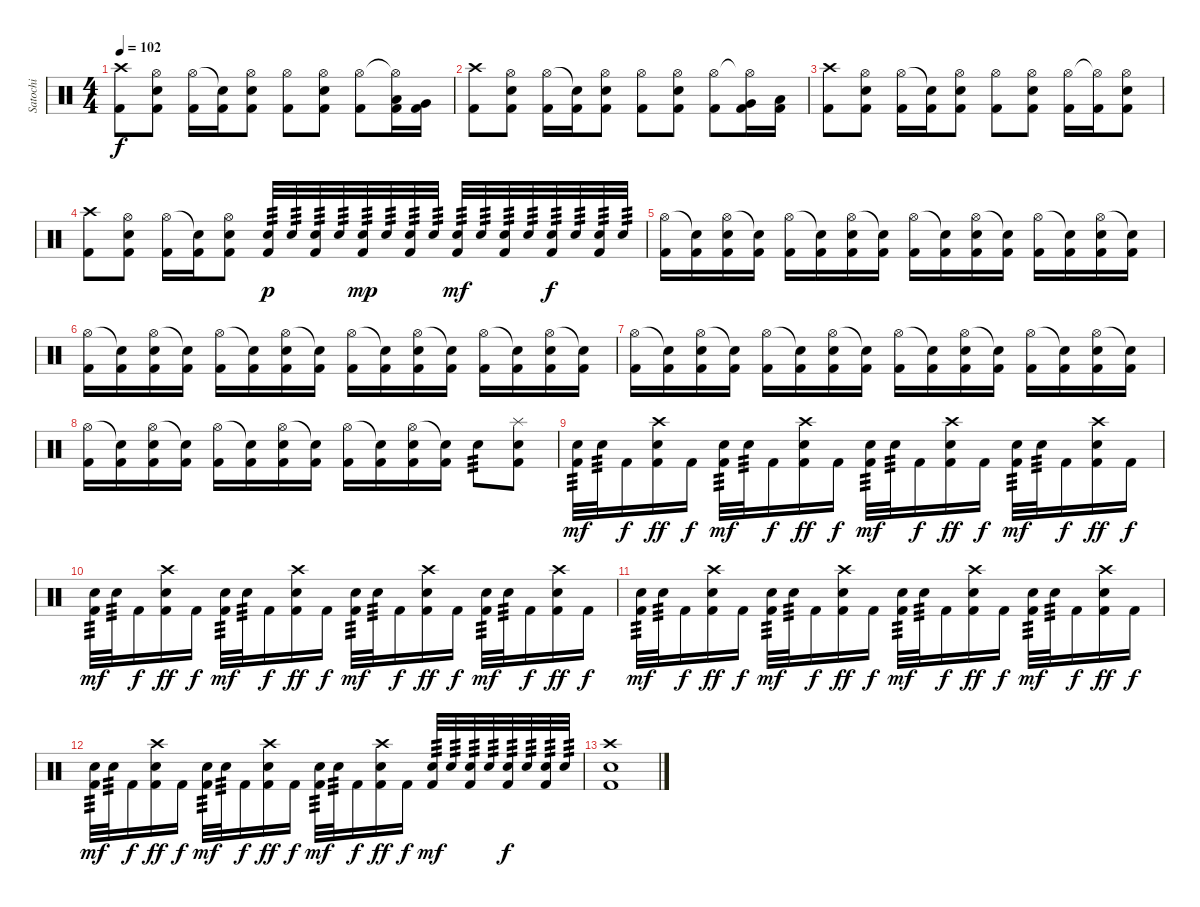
\track ("Satochi" "Satochi") {instrument percussion}
\staff {score}
\articulation defaults
\ts (4 4)
\tempo 102
\clef neutral
\ks c
("Crash high (hit)" "Kick (hit) 2").8{dy f} ("Hi-Hat (open)" "Electric Snare (hit)" "Kick (hit) 2").8 ("Hi-Hat (open)" "Kick (hit) 2").16 ("Snare (hit)"{t} "Kick (hit) 2").16 ("Hi-Hat (open)" "Electric Snare (hit)" "Kick (hit) 2").8 ("Hi-Hat (open)" "Kick (hit) 2").8 ("Hi-Hat (open)" "Electric Snare (hit)" "Kick (hit) 2").8 ("Hi-Hat (open)" "Kick (hit) 2").8 ("Hi-Hat (open)"{t} "Low Tom (hit)" "Kick (hit) 2").16 ("Very Low Tom (hit)" "Kick (hit) 2").16 |
("Crash high (hit)" "Kick (hit) 2").8 ("Hi-Hat (open)" "Electric Snare (hit)" "Kick (hit) 2").8 ("Hi-Hat (open)" "Kick (hit) 2").16 ("Snare (hit)"{t} "Kick (hit) 2").16 ("Hi-Hat (open)" "Electric Snare (hit)" "Kick (hit) 2").8 ("Hi-Hat (open)" "Kick (hit) 2").8 ("Hi-Hat (open)" "Electric Snare (hit)" "Kick (hit) 2").8 ("Hi-Hat (open)" "Kick (hit) 2").8 ("Hi-Hat (open)"{t} "Very Low Tom (hit)" "Kick (hit) 2").16 ("Low Tom (hit)" "Kick (hit) 2").16 |
("Crash high (hit)" "Kick (hit) 2").8 ("Hi-Hat (open)" "Electric Snare (hit)" "Kick (hit) 2").8 ("Hi-Hat (open)" "Kick (hit) 2").16 ("Snare (hit)"{t} "Kick (hit) 2").16 ("Hi-Hat (open)" "Electric Snare (hit)" "Kick (hit) 2").8 ("Hi-Hat (open)" "Kick (hit) 2").8 ("Hi-Hat (open)" "Electric Snare (hit)" "Kick (hit) 2").8 ("Hi-Hat (open)" "Kick (hit) 2").16 ("Hi-Hat (open)"{t} "Kick (hit) 2").16 ("Hi-Hat (open)" "Electric Snare (hit)" "Kick (hit) 2").8 |
("Crash high (hit)" "Kick (hit) 2").8 ("Hi-Hat (open)" "Electric Snare (hit)" "Kick (hit) 2").8 ("Hi-Hat (open)" "Kick (hit) 2").16 ("Snare (hit)"{t} "Kick (hit) 2").16 ("Hi-Hat (open)" "Electric Snare (hit)" "Kick (hit) 2").8 ("Electric Snare (hit)" "Kick (hit) 2").32{tp 3 dy p} "Electric Snare (hit)".32{tp 3} ("Electric Snare (hit)" "Kick (hit) 2").32{tp 3} "Electric Snare (hit)".32{tp 3} ("Electric Snare (hit)" "Kick (hit) 2").32{tp 3 dy mp} "Electric Snare (hit)".32{tp 3} ("Electric Snare (hit)" "Kick (hit) 2").32{tp 3} "Electric Snare (hit)".32{tp 3} ("Electric Snare (hit)" "Kick (hit) 2").32{tp 3 dy mf} "Electric Snare (hit)".32{tp 3} ("Electric Snare (hit)" "Kick (hit) 2").32{tp 3} "Electric Snare (hit)".32{tp 3} ("Electric Snare (hit)" "Kick (hit) 2").32{tp 3 dy f} "Electric Snare (hit)".32{tp 3} ("Electric Snare (hit)" "Kick (hit) 2").32{tp 3} "Electric Snare (hit)".32{tp 3} |
("Hi-Hat (open)" "Kick (hit) 2").16 ("Snare (hit)"{t} "Kick (hit) 2").16 ("Hi-Hat (open)" "Electric Snare (hit)" "Kick (hit) 2").16 ("Snare (hit)"{t} "Kick (hit) 2").16 ("Hi-Hat (open)" "Kick (hit) 2").16 ("Snare (hit)"{t} "Kick (hit) 2").16 ("Hi-Hat (open)" "Electric Snare (hit)" "Kick (hit) 2").16 ("Snare (hit)"{t} "Kick (hit) 2").16 ("Hi-Hat (open)" "Kick (hit) 2").16 ("Snare (hit)"{t} "Kick (hit) 2").16 ("Hi-Hat (open)" "Electric Snare (hit)" "Kick (hit) 2").16 ("Snare (hit)"{t} "Kick (hit) 2").16 ("Hi-Hat (open)" "Kick (hit) 2").16 ("Snare (hit)"{t} "Kick (hit) 2").16 ("Hi-Hat (open)" "Electric Snare (hit)" "Kick (hit) 2").16 ("Snare (hit)"{t} "Kick (hit) 2").16 |
("Hi-Hat (open)" "Kick (hit) 2").16 ("Snare (hit)"{t} "Kick (hit) 2").16 ("Hi-Hat (open)" "Electric Snare (hit)" "Kick (hit) 2").16 ("Snare (hit)"{t} "Kick (hit) 2").16 ("Hi-Hat (open)" "Kick (hit) 2").16 ("Snare (hit)"{t} "Kick (hit) 2").16 ("Hi-Hat (open)" "Electric Snare (hit)" "Kick (hit) 2").16 ("Snare (hit)"{t} "Kick (hit) 2").16 ("Hi-Hat (open)" "Kick (hit) 2").16 ("Snare (hit)"{t} "Kick (hit) 2").16 ("Hi-Hat (open)" "Electric Snare (hit)" "Kick (hit) 2").16 ("Snare (hit)"{t} "Kick (hit) 2").16 ("Hi-Hat (open)" "Kick (hit) 2").16 ("Snare (hit)"{t} "Kick (hit) 2").16 ("Hi-Hat (open)" "Electric Snare (hit)" "Kick (hit) 2").16 ("Snare (hit)"{t} "Kick (hit) 2").16 |
("Hi-Hat (open)" "Kick (hit) 2").16 ("Snare (hit)"{t} "Kick (hit) 2").16 ("Hi-Hat (open)" "Electric Snare (hit)" "Kick (hit) 2").16 ("Snare (hit)"{t} "Kick (hit) 2").16 ("Hi-Hat (open)" "Kick (hit) 2").16 ("Snare (hit)"{t} "Kick (hit) 2").16 ("Hi-Hat (open)" "Electric Snare (hit)" "Kick (hit) 2").16 ("Snare (hit)"{t} "Kick (hit) 2").16 ("Hi-Hat (open)" "Kick (hit) 2").16 ("Snare (hit)"{t} "Kick (hit) 2").16 ("Hi-Hat (open)" "Electric Snare (hit)" "Kick (hit) 2").16 ("Snare (hit)"{t} "Kick (hit) 2").16 ("Hi-Hat (open)" "Kick (hit) 2").16 ("Snare (hit)"{t} "Kick (hit) 2").16 ("Hi-Hat (open)" "Electric Snare (hit)" "Kick (hit) 2").16 ("Snare (hit)"{t} "Kick (hit) 2").16 |
("Hi-Hat (open)" "Kick (hit) 2").16 ("Snare (hit)"{t} "Kick (hit) 2").16 ("Hi-Hat (open)" "Electric Snare (hit)" "Kick (hit) 2").16 ("Snare (hit)"{t} "Kick (hit) 2").16 ("Hi-Hat (open)" "Kick (hit) 2").16 ("Snare (hit)"{t} "Kick (hit) 2").16 ("Hi-Hat (open)" "Electric Snare (hit)" "Kick (hit) 2").16 ("Snare (hit)"{t} "Kick (hit) 2").16 ("Hi-Hat (open)" "Kick (hit) 2").16 ("Snare (hit)"{t} "Kick (hit) 2").16 ("Hi-Hat (open)" "Electric Snare (hit)" "Kick (hit) 2").16 ("Snare (hit)"{t} "Kick (hit) 2").16 "Electric Snare (hit)".8{tp 3} ("Splash (hit)" "Electric Snare (hit)" "Kick (hit) 2").8 |
("Electric Snare (hit)" "Kick (hit) 2").32{tp 3 dy mf} "Electric Snare (hit)".32{tp 3} "Kick (hit) 2".16{dy f} ("Crash high (hit)" "Electric Snare (hit)" "Kick (hit) 2").16{dy ff} "Kick (hit) 2".16{dy f} ("Electric Snare (hit)" "Kick (hit) 2").32{tp 3 dy mf} "Electric Snare (hit)".32{tp 3} "Kick (hit) 2".16{dy f} ("Crash high (hit)" "Electric Snare (hit)" "Kick (hit) 2").16{dy ff} "Kick (hit) 2".16{dy f} ("Electric Snare (hit)" "Kick (hit) 2").32{tp 3 dy mf} "Electric Snare (hit)".32{tp 3} "Kick (hit) 2".16{dy f} ("Crash high (hit)" "Electric Snare (hit)" "Kick (hit) 2").16{dy ff} "Kick (hit) 2".16{dy f} ("Electric Snare (hit)" "Kick (hit) 2").32{tp 3 dy mf} "Electric Snare (hit)".32{tp 3} "Kick (hit) 2".16{dy f} ("Crash high (hit)" "Electric Snare (hit)" "Kick (hit) 2").16{dy ff} "Kick (hit) 2".16{dy f} |
("Electric Snare (hit)" "Kick (hit) 2").32{tp 3 dy mf} "Electric Snare (hit)".32{tp 3} "Kick (hit) 2".16{dy f} ("Crash high (hit)" "Electric Snare (hit)" "Kick (hit) 2").16{dy ff} "Kick (hit) 2".16{dy f} ("Electric Snare (hit)" "Kick (hit) 2").32{tp 3 dy mf} "Electric Snare (hit)".32{tp 3} "Kick (hit) 2".16{dy f} ("Crash high (hit)" "Electric Snare (hit)" "Kick (hit) 2").16{dy ff} "Kick (hit) 2".16{dy f} ("Electric Snare (hit)" "Kick (hit) 2").32{tp 3 dy mf} "Electric Snare (hit)".32{tp 3} "Kick (hit) 2".16{dy f} ("Crash high (hit)" "Electric Snare (hit)" "Kick (hit) 2").16{dy ff} "Kick (hit) 2".16{dy f} ("Electric Snare (hit)" "Kick (hit) 2").32{tp 3 dy mf} "Electric Snare (hit)".32{tp 3} "Kick (hit) 2".16{dy f} ("Crash high (hit)" "Electric Snare (hit)" "Kick (hit) 2").16{dy ff} "Kick (hit) 2".16{dy f} |
("Electric Snare (hit)" "Kick (hit) 2").32{tp 3 dy mf} "Electric Snare (hit)".32{tp 3} "Kick (hit) 2".16{dy f} ("Crash high (hit)" "Electric Snare (hit)" "Kick (hit) 2").16{dy ff} "Kick (hit) 2".16{dy f} ("Electric Snare (hit)" "Kick (hit) 2").32{tp 3 dy mf} "Electric Snare (hit)".32{tp 3} "Kick (hit) 2".16{dy f} ("Crash high (hit)" "Electric Snare (hit)" "Kick (hit) 2").16{dy ff} "Kick (hit) 2".16{dy f} ("Electric Snare (hit)" "Kick (hit) 2").32{tp 3 dy mf} "Electric Snare (hit)".32{tp 3} "Kick (hit) 2".16{dy f} ("Crash high (hit)" "Electric Snare (hit)" "Kick (hit) 2").16{dy ff} "Kick (hit) 2".16{dy f} ("Electric Snare (hit)" "Kick (hit) 2").32{tp 3 dy mf} "Electric Snare (hit)".32{tp 3} "Kick (hit) 2".16{dy f} ("Crash high (hit)" "Electric Snare (hit)" "Kick (hit) 2").16{dy ff} "Kick (hit) 2".16{dy f} |
("Electric Snare (hit)" "Kick (hit) 2").32{tp 3 dy mf} "Electric Snare (hit)".32{tp 3} "Kick (hit) 2".16{dy f} ("Crash high (hit)" "Electric Snare (hit)" "Kick (hit) 2").16{dy ff} "Kick (hit) 2".16{dy f} ("Electric Snare (hit)" "Kick (hit) 2").32{tp 3 dy mf} "Electric Snare (hit)".32{tp 3} "Kick (hit) 2".16{dy f} ("Crash high (hit)" "Electric Snare (hit)" "Kick (hit) 2").16{dy ff} "Kick (hit) 2".16{dy f} ("Electric Snare (hit)" "Kick (hit) 2").32{tp 3 dy mf} "Electric Snare (hit)".32{tp 3} "Kick (hit) 2".16{dy f} ("Crash high (hit)" "Electric Snare (hit)" "Kick (hit) 2").16{dy ff} "Kick (hit) 2".16{dy f} ("Electric Snare (hit)" "Kick (hit) 2").32{tp 3 dy mf} "Electric Snare (hit)".32{tp 3} ("Electric Snare (hit)" "Kick (hit) 2").32{tp 3} "Electric Snare (hit)".32{tp 3} ("Electric Snare (hit)" "Kick (hit) 2").32{tp 3 dy f} "Electric Snare (hit)".32{tp 3} ("Electric Snare (hit)" "Kick (hit) 2").32{tp 3} "Electric Snare (hit)".32{tp 3} |
("Crash high (hit)" "Electric Snare (hit)" "Kick (hit) 2").1
